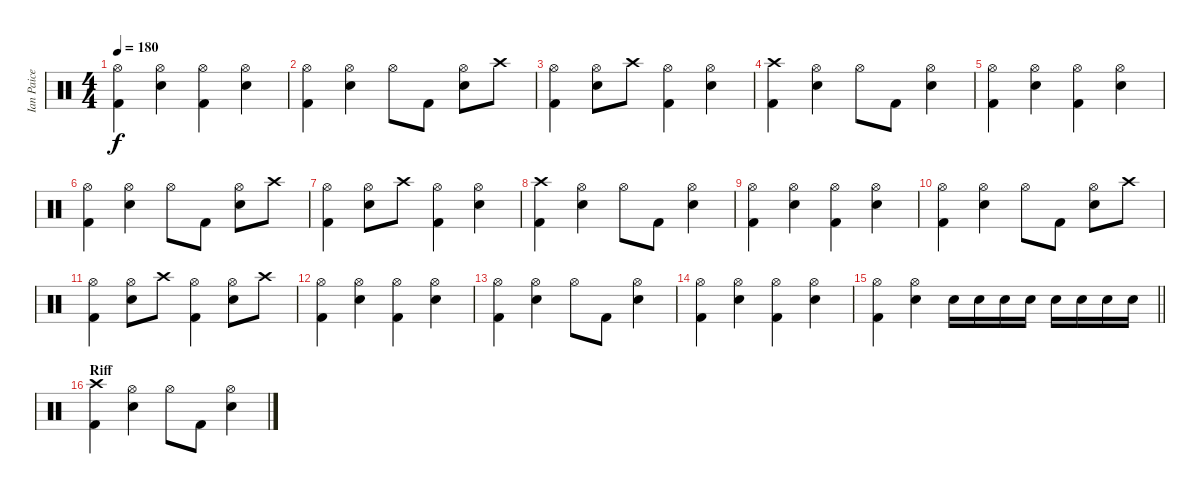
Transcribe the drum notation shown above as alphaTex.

\track ("Ian Paice" "Ian Paice") {instrument percussion}
\staff {score}
\articulation defaults
\ts (4 4)
\tempo 180
\clef neutral
\ks aminor
("Hi-Hat (open)" "Kick (hit) 2").4{dy f} ("Hi-Hat (open)" "Snare (hit) 2").4 ("Hi-Hat (open)" "Kick (hit) 2").4 ("Hi-Hat (open)" "Snare (hit) 2").4 |
("Hi-Hat (open)" "Kick (hit) 2").4 ("Hi-Hat (open)" "Snare (hit) 2").4 "Hi-Hat (open)".8 "Kick (hit) 2".8 ("Hi-Hat (open)" "Snare (hit) 2").8 "Crash high (hit)".8 |
("Hi-Hat (open)" "Kick (hit) 2").4 ("Hi-Hat (open)" "Snare (hit) 2").8 "Crash high (hit)".8 ("Hi-Hat (open)" "Kick (hit) 2").4 ("Hi-Hat (open)" "Snare (hit) 2").4 |
("Crash high (hit)" "Kick (hit) 2").4 ("Hi-Hat (open)" "Snare (hit) 2").4 "Hi-Hat (open)".8 "Kick (hit) 2".8 ("Hi-Hat (open)" "Snare (hit) 2").4 |
("Hi-Hat (open)" "Kick (hit) 2").4 ("Hi-Hat (open)" "Snare (hit) 2").4 ("Hi-Hat (open)" "Kick (hit) 2").4 ("Hi-Hat (open)" "Snare (hit) 2").4 |
("Hi-Hat (open)" "Kick (hit) 2").4 ("Hi-Hat (open)" "Snare (hit) 2").4 "Hi-Hat (open)".8 "Kick (hit) 2".8 ("Hi-Hat (open)" "Snare (hit) 2").8 "Crash high (hit)".8 |
("Hi-Hat (open)" "Kick (hit) 2").4 ("Hi-Hat (open)" "Snare (hit) 2").8 "Crash high (hit)".8 ("Hi-Hat (open)" "Kick (hit) 2").4 ("Hi-Hat (open)" "Snare (hit) 2").4 |
("Crash high (hit)" "Kick (hit) 2").4 ("Hi-Hat (open)" "Snare (hit) 2").4 "Hi-Hat (open)".8 "Kick (hit) 2".8 ("Hi-Hat (open)" "Snare (hit) 2").4 |
("Hi-Hat (open)" "Kick (hit) 2").4 ("Hi-Hat (open)" "Snare (hit) 2").4 ("Hi-Hat (open)" "Kick (hit) 2").4 ("Hi-Hat (open)" "Snare (hit) 2").4 |
("Hi-Hat (open)" "Kick (hit) 2").4 ("Hi-Hat (open)" "Snare (hit) 2").4 "Hi-Hat (open)".8 "Kick (hit) 2".8 ("Hi-Hat (open)" "Snare (hit) 2").8 "Crash high (hit)".8 |
("Hi-Hat (open)" "Kick (hit) 2").4 ("Hi-Hat (open)" "Snare (hit) 2").8 "Crash high (hit)".8 ("Hi-Hat (open)" "Kick (hit) 2").4 ("Hi-Hat (open)" "Snare (hit) 2").8 "Crash high (hit)".8 |
("Hi-Hat (open)" "Kick (hit) 2").4 ("Hi-Hat (open)" "Snare (hit) 2").4 ("Hi-Hat (open)" "Kick (hit) 2").4 ("Hi-Hat (open)" "Snare (hit) 2").4 |
("Hi-Hat (open)" "Kick (hit) 2").4 ("Hi-Hat (open)" "Snare (hit) 2").4 "Hi-Hat (open)".8 "Kick (hit) 2".8 ("Hi-Hat (open)" "Snare (hit) 2").4 |
("Hi-Hat (open)" "Kick (hit) 2").4 ("Hi-Hat (open)" "Snare (hit) 2").4 ("Hi-Hat (open)" "Kick (hit) 2").4 ("Hi-Hat (open)" "Snare (hit) 2").4 |
\barLineRight lightlight
("Hi-Hat (open)" "Kick (hit) 2").4 ("Hi-Hat (open)" "Snare (hit) 2").4 "Snare (hit) 2".16 "Snare (hit) 2".16 "Snare (hit) 2".16 "Snare (hit) 2".16 "Snare (hit) 2".16 "Snare (hit) 2".16 "Snare (hit) 2".16 "Snare (hit) 2".16 |
\section ("" "Riff")
("Crash high (hit)" "Kick (hit) 2").4 ("Hi-Hat (open)" "Snare (hit) 2").4 "Hi-Hat (open)".8 "Kick (hit) 2".8 ("Hi-Hat (open)" "Snare (hit) 2").4
